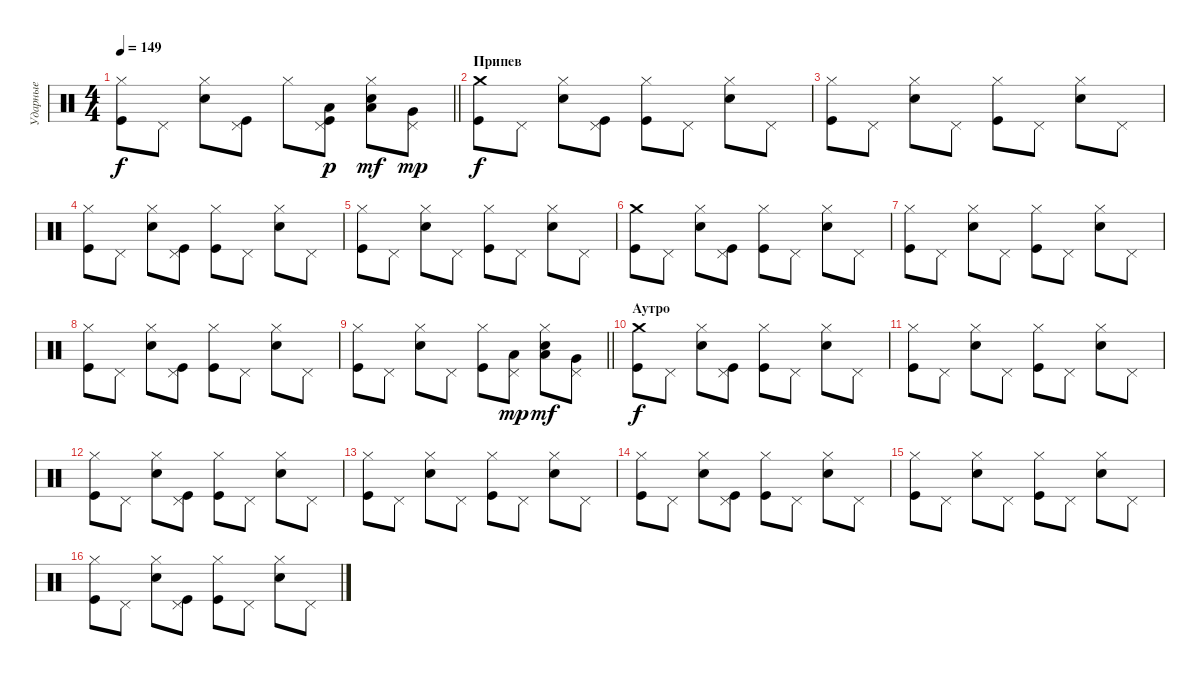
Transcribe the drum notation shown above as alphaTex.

\track ("Ударные" "Ударные") {instrument percussion}
\staff {score}
\articulation defaults
\ts (4 4)
\tempo 149
\clef neutral
\barLineRight lightlight
\ks c
("Hi-Hat (closed)" "Kick (hit)").8{dy f} "Pedal Hi-Hat (hit)".8 ("Hi-Hat (closed)" "Snare (hit) 2").8 ("Pedal Hi-Hat (hit)" "Kick (hit)").8 "Hi-Hat (closed)".8 ("Pedal Hi-Hat (hit)" "Kick (hit)" "Low Floor Tom (hit)").8{dy p} ("Hi-Hat (closed)" "Snare (hit) 2" "Low Tom (hit)").8{dy mf} ("Pedal Hi-Hat (hit)" "Very Low Tom (hit)").8{dy mp} |
\section ("" "Припев")
("Crash medium (hit)" "Kick (hit)").8{dy f} "Pedal Hi-Hat (hit)".8 ("Hi-Hat (closed)" "Snare (hit) 2").8 ("Pedal Hi-Hat (hit)" "Kick (hit)").8 ("Hi-Hat (closed)" "Kick (hit)").8 "Pedal Hi-Hat (hit)".8 ("Hi-Hat (closed)" "Snare (hit) 2").8 "Pedal Hi-Hat (hit)".8 |
("Hi-Hat (closed)" "Kick (hit)").8 "Pedal Hi-Hat (hit)".8 ("Hi-Hat (closed)" "Snare (hit) 2").8 "Pedal Hi-Hat (hit)".8 ("Hi-Hat (closed)" "Kick (hit)").8 "Pedal Hi-Hat (hit)".8 ("Hi-Hat (closed)" "Snare (hit) 2").8 "Pedal Hi-Hat (hit)".8 |
("Hi-Hat (closed)" "Kick (hit)").8 "Pedal Hi-Hat (hit)".8 ("Hi-Hat (closed)" "Snare (hit) 2").8 ("Pedal Hi-Hat (hit)" "Kick (hit)").8 ("Hi-Hat (closed)" "Kick (hit)").8 "Pedal Hi-Hat (hit)".8 ("Hi-Hat (closed)" "Snare (hit) 2").8 "Pedal Hi-Hat (hit)".8 |
("Hi-Hat (closed)" "Kick (hit)").8 "Pedal Hi-Hat (hit)".8 ("Hi-Hat (closed)" "Snare (hit) 2").8 "Pedal Hi-Hat (hit)".8 ("Hi-Hat (closed)" "Kick (hit)").8 "Pedal Hi-Hat (hit)".8 ("Hi-Hat (closed)" "Snare (hit) 2").8 "Pedal Hi-Hat (hit)".8 |
("Crash medium (hit)" "Kick (hit)").8 "Pedal Hi-Hat (hit)".8 ("Hi-Hat (closed)" "Snare (hit) 2").8 ("Pedal Hi-Hat (hit)" "Kick (hit)").8 ("Hi-Hat (closed)" "Kick (hit)").8 "Pedal Hi-Hat (hit)".8 ("Hi-Hat (closed)" "Snare (hit) 2").8 "Pedal Hi-Hat (hit)".8 |
("Hi-Hat (closed)" "Kick (hit)").8 "Pedal Hi-Hat (hit)".8 ("Hi-Hat (closed)" "Snare (hit) 2").8 "Pedal Hi-Hat (hit)".8 ("Hi-Hat (closed)" "Kick (hit)").8 "Pedal Hi-Hat (hit)".8 ("Hi-Hat (closed)" "Snare (hit) 2").8 "Pedal Hi-Hat (hit)".8 |
("Hi-Hat (closed)" "Kick (hit)").8 "Pedal Hi-Hat (hit)".8 ("Hi-Hat (closed)" "Snare (hit) 2").8 ("Pedal Hi-Hat (hit)" "Kick (hit)").8 ("Hi-Hat (closed)" "Kick (hit)").8 "Pedal Hi-Hat (hit)".8 ("Hi-Hat (closed)" "Snare (hit) 2").8 "Pedal Hi-Hat (hit)".8 |
\barLineRight lightlight
("Hi-Hat (closed)" "Kick (hit)").8 "Pedal Hi-Hat (hit)".8 ("Hi-Hat (closed)" "Snare (hit) 2").8 "Pedal Hi-Hat (hit)".8 ("Hi-Hat (closed)" "Kick (hit)").8 ("Pedal Hi-Hat (hit)" "Low Floor Tom (hit)").8{dy mp} ("Hi-Hat (closed)" "Snare (hit) 2" "Low Tom (hit)").8{dy mf} ("Pedal Hi-Hat (hit)" "Very Low Tom (hit)").8 |
\section ("" "Аутро")
("Crash medium (hit)" "Kick (hit)").8{dy f} "Pedal Hi-Hat (hit)".8 ("Hi-Hat (closed)" "Snare (hit) 2").8 ("Pedal Hi-Hat (hit)" "Kick (hit)").8 ("Hi-Hat (closed)" "Kick (hit)").8 "Pedal Hi-Hat (hit)".8 ("Hi-Hat (closed)" "Snare (hit) 2").8 "Pedal Hi-Hat (hit)".8 |
("Hi-Hat (closed)" "Kick (hit)").8 "Pedal Hi-Hat (hit)".8 ("Hi-Hat (closed)" "Snare (hit) 2").8 "Pedal Hi-Hat (hit)".8 ("Hi-Hat (closed)" "Kick (hit)").8 "Pedal Hi-Hat (hit)".8 ("Hi-Hat (closed)" "Snare (hit) 2").8 "Pedal Hi-Hat (hit)".8 |
("Hi-Hat (closed)" "Kick (hit)").8 "Pedal Hi-Hat (hit)".8 ("Hi-Hat (closed)" "Snare (hit) 2").8 ("Pedal Hi-Hat (hit)" "Kick (hit)").8 ("Hi-Hat (closed)" "Kick (hit)").8 "Pedal Hi-Hat (hit)".8 ("Hi-Hat (closed)" "Snare (hit) 2").8 "Pedal Hi-Hat (hit)".8 |
("Hi-Hat (closed)" "Kick (hit)").8 "Pedal Hi-Hat (hit)".8 ("Hi-Hat (closed)" "Snare (hit) 2").8 "Pedal Hi-Hat (hit)".8 ("Hi-Hat (closed)" "Kick (hit)").8 "Pedal Hi-Hat (hit)".8 ("Hi-Hat (closed)" "Snare (hit) 2").8 "Pedal Hi-Hat (hit)".8 |
("Hi-Hat (closed)" "Kick (hit)").8 "Pedal Hi-Hat (hit)".8 ("Hi-Hat (closed)" "Snare (hit) 2").8 ("Pedal Hi-Hat (hit)" "Kick (hit)").8 ("Hi-Hat (closed)" "Kick (hit)").8 "Pedal Hi-Hat (hit)".8 ("Hi-Hat (closed)" "Snare (hit) 2").8 "Pedal Hi-Hat (hit)".8 |
("Hi-Hat (closed)" "Kick (hit)").8 "Pedal Hi-Hat (hit)".8 ("Hi-Hat (closed)" "Snare (hit) 2").8 "Pedal Hi-Hat (hit)".8 ("Hi-Hat (closed)" "Kick (hit)").8 "Pedal Hi-Hat (hit)".8 ("Hi-Hat (closed)" "Snare (hit) 2").8 "Pedal Hi-Hat (hit)".8 |
("Hi-Hat (closed)" "Kick (hit)").8 "Pedal Hi-Hat (hit)".8 ("Hi-Hat (closed)" "Snare (hit) 2").8 ("Pedal Hi-Hat (hit)" "Kick (hit)").8 ("Hi-Hat (closed)" "Kick (hit)").8 "Pedal Hi-Hat (hit)".8 ("Hi-Hat (closed)" "Snare (hit) 2").8 "Pedal Hi-Hat (hit)".8
